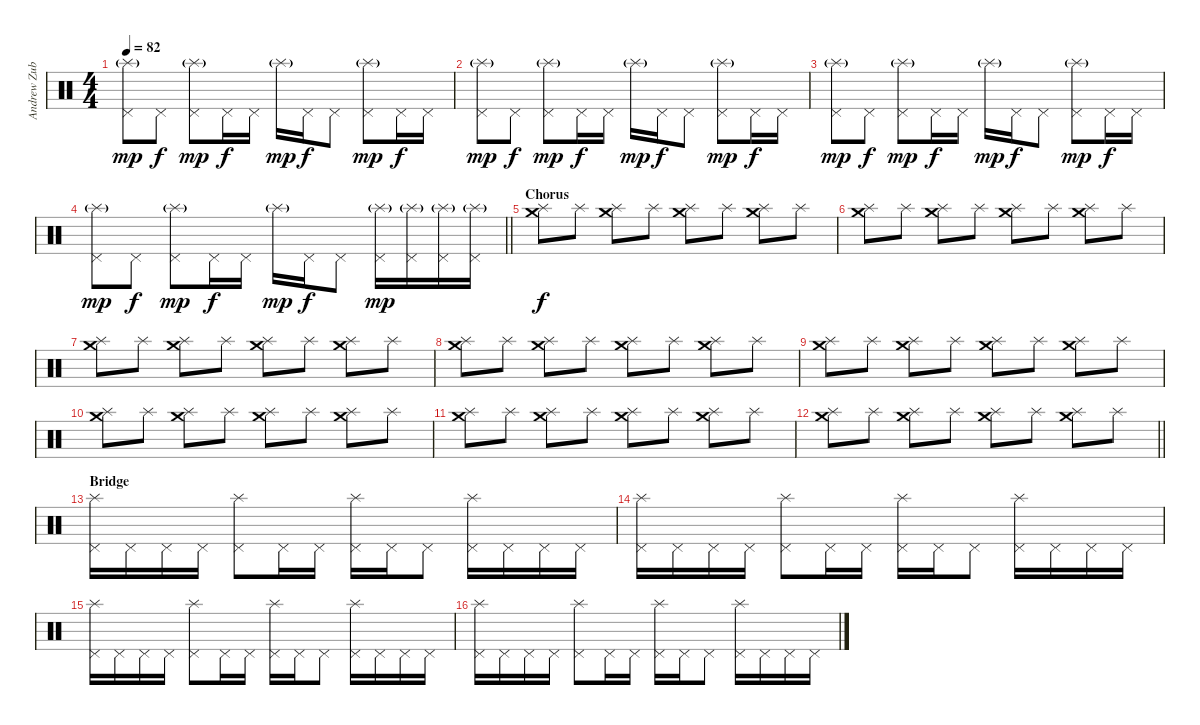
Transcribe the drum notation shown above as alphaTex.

\track ("Andrew Zubiszewski (Drums)" "Andrew Zub") {instrument percussion}
\staff {score}
\articulation defaults
\ts (4 4)
\tempo 82
\clef neutral
\ks c
("Splash (hit)"{g} "Pedal Hi-Hat (hit)").8{dy mp} "Pedal Hi-Hat (hit)".8{dy f} ("Splash (hit)"{g} "Pedal Hi-Hat (hit)").8{dy mp} "Pedal Hi-Hat (hit)".16{dy f} "Pedal Hi-Hat (hit)".16 "Splash (hit)"{g}.16{dy mp} "Pedal Hi-Hat (hit)".16{dy f} "Pedal Hi-Hat (hit)".8 ("Splash (hit)"{g} "Pedal Hi-Hat (hit)").8{dy mp} "Pedal Hi-Hat (hit)".16{dy f} "Pedal Hi-Hat (hit)".16 |
("Splash (hit)"{g} "Pedal Hi-Hat (hit)").8{dy mp} "Pedal Hi-Hat (hit)".8{dy f} ("Splash (hit)"{g} "Pedal Hi-Hat (hit)").8{dy mp} "Pedal Hi-Hat (hit)".16{dy f} "Pedal Hi-Hat (hit)".16 "Splash (hit)"{g}.16{dy mp} "Pedal Hi-Hat (hit)".16{dy f} "Pedal Hi-Hat (hit)".8 ("Splash (hit)"{g} "Pedal Hi-Hat (hit)").8{dy mp} "Pedal Hi-Hat (hit)".16{dy f} "Pedal Hi-Hat (hit)".16 |
("Splash (hit)"{g} "Pedal Hi-Hat (hit)").8{dy mp} "Pedal Hi-Hat (hit)".8{dy f} ("Splash (hit)"{g} "Pedal Hi-Hat (hit)").8{dy mp} "Pedal Hi-Hat (hit)".16{dy f} "Pedal Hi-Hat (hit)".16 "Splash (hit)"{g}.16{dy mp} "Pedal Hi-Hat (hit)".16{dy f} "Pedal Hi-Hat (hit)".8 ("Splash (hit)"{g} "Pedal Hi-Hat (hit)").8{dy mp} "Pedal Hi-Hat (hit)".16{dy f} "Pedal Hi-Hat (hit)".16 |
\barLineRight lightlight
("Splash (hit)"{g} "Pedal Hi-Hat (hit)").8{dy mp} "Pedal Hi-Hat (hit)".8{dy f} ("Splash (hit)"{g} "Pedal Hi-Hat (hit)").8{dy mp} "Pedal Hi-Hat (hit)".16{dy f} "Pedal Hi-Hat (hit)".16 "Splash (hit)"{g}.16{dy mp} "Pedal Hi-Hat (hit)".16{dy f} "Pedal Hi-Hat (hit)".8 ("Splash (hit)"{g} "Pedal Hi-Hat (hit)").16{dy mp} ("Splash (hit)"{g} "Pedal Hi-Hat (hit)").16 ("Splash (hit)"{g} "Pedal Hi-Hat (hit)").16 ("Splash (hit)"{g} "Pedal Hi-Hat (hit)").16 |
\section ("" "Chorus")
("Crash medium (hit)" "Splash (hit)").8{dy f} "Splash (hit)".8 ("Crash medium (hit)" "Splash (hit)").8 "Splash (hit)".8 ("Crash medium (hit)" "Splash (hit)").8 "Splash (hit)".8 ("Crash medium (hit)" "Splash (hit)").8 "Splash (hit)".8 |
("Crash medium (hit)" "Splash (hit)").8 "Splash (hit)".8 ("Crash medium (hit)" "Splash (hit)").8 "Splash (hit)".8 ("Crash medium (hit)" "Splash (hit)").8 "Splash (hit)".8 ("Crash medium (hit)" "Splash (hit)").8 "Splash (hit)".8 |
("Crash medium (hit)" "Splash (hit)").8 "Splash (hit)".8 ("Crash medium (hit)" "Splash (hit)").8 "Splash (hit)".8 ("Crash medium (hit)" "Splash (hit)").8 "Splash (hit)".8 ("Crash medium (hit)" "Splash (hit)").8 "Splash (hit)".8 |
("Crash medium (hit)" "Splash (hit)").8 "Splash (hit)".8 ("Crash medium (hit)" "Splash (hit)").8 "Splash (hit)".8 ("Crash medium (hit)" "Splash (hit)").8 "Splash (hit)".8 ("Crash medium (hit)" "Splash (hit)").8 "Splash (hit)".8 |
("Crash medium (hit)" "Splash (hit)").8 "Splash (hit)".8 ("Crash medium (hit)" "Splash (hit)").8 "Splash (hit)".8 ("Crash medium (hit)" "Splash (hit)").8 "Splash (hit)".8 ("Crash medium (hit)" "Splash (hit)").8 "Splash (hit)".8 |
("Crash medium (hit)" "Splash (hit)").8 "Splash (hit)".8 ("Crash medium (hit)" "Splash (hit)").8 "Splash (hit)".8 ("Crash medium (hit)" "Splash (hit)").8 "Splash (hit)".8 ("Crash medium (hit)" "Splash (hit)").8 "Splash (hit)".8 |
("Crash medium (hit)" "Splash (hit)").8 "Splash (hit)".8 ("Crash medium (hit)" "Splash (hit)").8 "Splash (hit)".8 ("Crash medium (hit)" "Splash (hit)").8 "Splash (hit)".8 ("Crash medium (hit)" "Splash (hit)").8 "Splash (hit)".8 |
\barLineRight lightlight
("Crash medium (hit)" "Splash (hit)").8 "Splash (hit)".8 ("Crash medium (hit)" "Splash (hit)").8 "Splash (hit)".8 ("Crash medium (hit)" "Splash (hit)").8 "Splash (hit)".8 ("Crash medium (hit)" "Splash (hit)").8 "Splash (hit)".8 |
\section ("" "Bridge")
("Splash (hit)" "Pedal Hi-Hat (hit)").16 "Pedal Hi-Hat (hit)".16 "Pedal Hi-Hat (hit)".16 "Pedal Hi-Hat (hit)".16 ("Splash (hit)" "Pedal Hi-Hat (hit)").8 "Pedal Hi-Hat (hit)".16 "Pedal Hi-Hat (hit)".16 ("Splash (hit)" "Pedal Hi-Hat (hit)").16 "Pedal Hi-Hat (hit)".16 "Pedal Hi-Hat (hit)".8 ("Splash (hit)" "Pedal Hi-Hat (hit)").16 "Pedal Hi-Hat (hit)".16 "Pedal Hi-Hat (hit)".16 "Pedal Hi-Hat (hit)".16 |
("Splash (hit)" "Pedal Hi-Hat (hit)").16 "Pedal Hi-Hat (hit)".16 "Pedal Hi-Hat (hit)".16 "Pedal Hi-Hat (hit)".16 ("Splash (hit)" "Pedal Hi-Hat (hit)").8 "Pedal Hi-Hat (hit)".16 "Pedal Hi-Hat (hit)".16 ("Splash (hit)" "Pedal Hi-Hat (hit)").16 "Pedal Hi-Hat (hit)".16 "Pedal Hi-Hat (hit)".8 ("Splash (hit)" "Pedal Hi-Hat (hit)").16 "Pedal Hi-Hat (hit)".16 "Pedal Hi-Hat (hit)".16 "Pedal Hi-Hat (hit)".16 |
("Splash (hit)" "Pedal Hi-Hat (hit)").16 "Pedal Hi-Hat (hit)".16 "Pedal Hi-Hat (hit)".16 "Pedal Hi-Hat (hit)".16 ("Splash (hit)" "Pedal Hi-Hat (hit)").8 "Pedal Hi-Hat (hit)".16 "Pedal Hi-Hat (hit)".16 ("Splash (hit)" "Pedal Hi-Hat (hit)").16 "Pedal Hi-Hat (hit)".16 "Pedal Hi-Hat (hit)".8 ("Splash (hit)" "Pedal Hi-Hat (hit)").16 "Pedal Hi-Hat (hit)".16 "Pedal Hi-Hat (hit)".16 "Pedal Hi-Hat (hit)".16 |
("Splash (hit)" "Pedal Hi-Hat (hit)").16 "Pedal Hi-Hat (hit)".16 "Pedal Hi-Hat (hit)".16 "Pedal Hi-Hat (hit)".16 ("Splash (hit)" "Pedal Hi-Hat (hit)").8 "Pedal Hi-Hat (hit)".16 "Pedal Hi-Hat (hit)".16 ("Splash (hit)" "Pedal Hi-Hat (hit)").16 "Pedal Hi-Hat (hit)".16 "Pedal Hi-Hat (hit)".8 ("Splash (hit)" "Pedal Hi-Hat (hit)").16 "Pedal Hi-Hat (hit)".16 "Pedal Hi-Hat (hit)".16 "Pedal Hi-Hat (hit)".16
